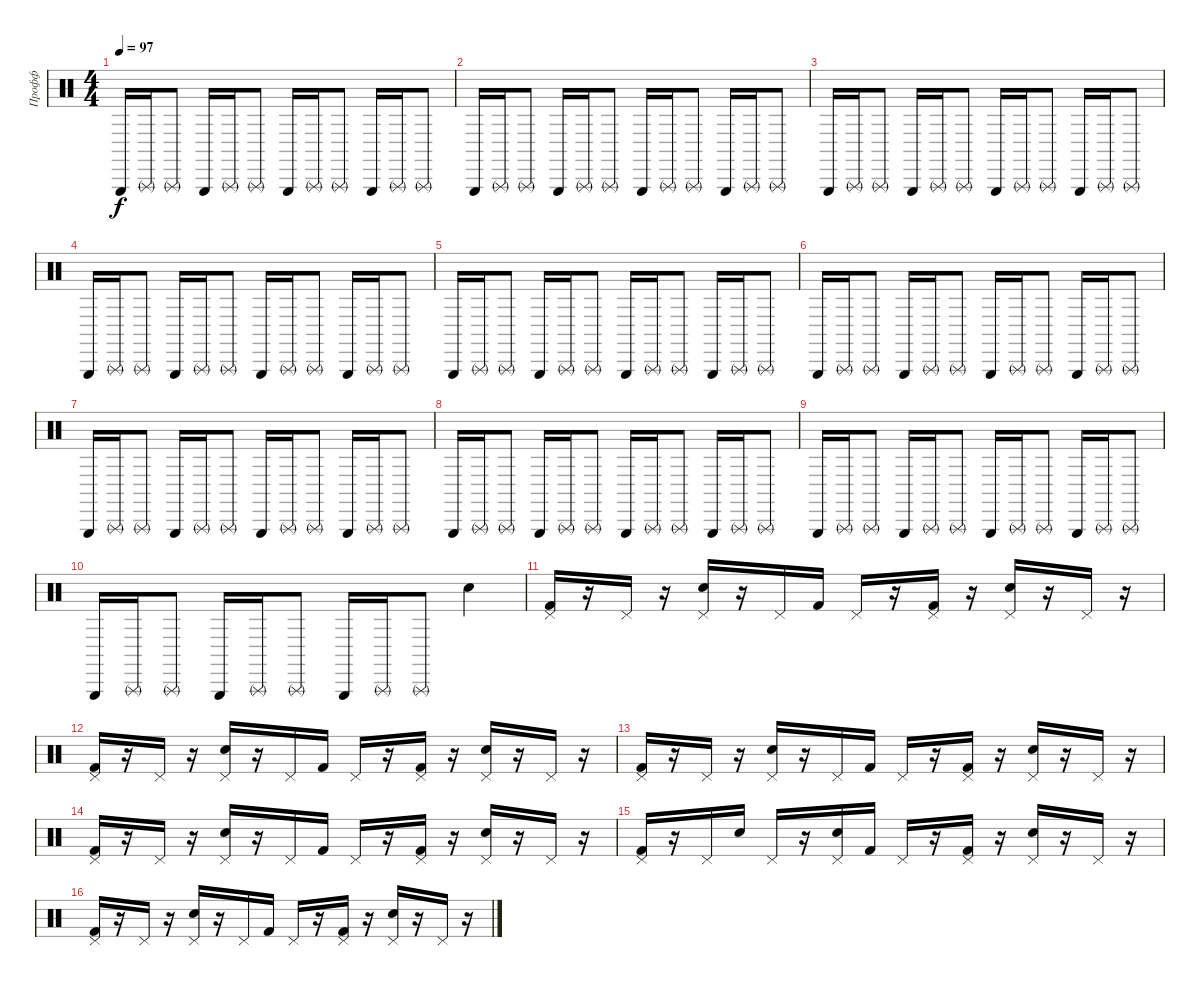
\track ("Профф" "Профф") {instrument percussion}
\staff {score}
\articulation defaults
\ts (4 4)
\tempo 97
\clef neutral
\ks c "Triangle (hit)".16{dy f} "Triangle (rnute)".16 "Triangle (rnute)".8 "Triangle (hit)".16 "Triangle (rnute)".16 "Triangle (rnute)".8 "Triangle (hit)".16 "Triangle (rnute)".16 "Triangle (rnute)".8 "Triangle (hit)".16 "Triangle (rnute)".16 "Triangle (rnute)".8
|
"Triangle (hit)".16 "Triangle (rnute)".16 "Triangle (rnute)".8 "Triangle (hit)".16 "Triangle (rnute)".16 "Triangle (rnute)".8 "Triangle (hit)".16 "Triangle (rnute)".16 "Triangle (rnute)".8 "Triangle (hit)".16 "Triangle (rnute)".16 "Triangle (rnute)".8 |
"Triangle (hit)".16 "Triangle (rnute)".16 "Triangle (rnute)".8 "Triangle (hit)".16 "Triangle (rnute)".16 "Triangle (rnute)".8 "Triangle (hit)".16 "Triangle (rnute)".16 "Triangle (rnute)".8 "Triangle (hit)".16 "Triangle (rnute)".16 "Triangle (rnute)".8 |
"Triangle (hit)".16 "Triangle (rnute)".16 "Triangle (rnute)".8 "Triangle (hit)".16 "Triangle (rnute)".16 "Triangle (rnute)".8 "Triangle (hit)".16 "Triangle (rnute)".16 "Triangle (rnute)".8 "Triangle (hit)".16 "Triangle (rnute)".16 "Triangle (rnute)".8 |
"Triangle (hit)".16 "Triangle (rnute)".16 "Triangle (rnute)".8 "Triangle (hit)".16 "Triangle (rnute)".16 "Triangle (rnute)".8 "Triangle (hit)".16 "Triangle (rnute)".16 "Triangle (rnute)".8 "Triangle (hit)".16 "Triangle (rnute)".16 "Triangle (rnute)".8 |
"Triangle (hit)".16 "Triangle (rnute)".16 "Triangle (rnute)".8 "Triangle (hit)".16 "Triangle (rnute)".16 "Triangle (rnute)".8 "Triangle (hit)".16 "Triangle (rnute)".16 "Triangle (rnute)".8 "Triangle (hit)".16 "Triangle (rnute)".16 "Triangle (rnute)".8 |
"Triangle (hit)".16 "Triangle (rnute)".16 "Triangle (rnute)".8 "Triangle (hit)".16 "Triangle (rnute)".16 "Triangle (rnute)".8 "Triangle (hit)".16 "Triangle (rnute)".16 "Triangle (rnute)".8 "Triangle (hit)".16 "Triangle (rnute)".16 "Triangle (rnute)".8 |
"Triangle (hit)".16 "Triangle (rnute)".16 "Triangle (rnute)".8 "Triangle (hit)".16 "Triangle (rnute)".16 "Triangle (rnute)".8 "Triangle (hit)".16 "Triangle (rnute)".16 "Triangle (rnute)".8 "Triangle (hit)".16 "Triangle (rnute)".16 "Triangle (rnute)".8 |
"Triangle (hit)".16 "Triangle (rnute)".16 "Triangle (rnute)".8 "Triangle (hit)".16 "Triangle (rnute)".16 "Triangle (rnute)".8 "Triangle (hit)".16 "Triangle (rnute)".16 "Triangle (rnute)".8 "Triangle (hit)".16 "Triangle (rnute)".16 "Triangle (rnute)".8 |
"Triangle (hit)".16 "Triangle (rnute)".16 "Triangle (rnute)".8 "Triangle (hit)".16 "Triangle (rnute)".16 "Triangle (rnute)".8 "Triangle (hit)".16 "Triangle (rnute)".16 "Triangle (rnute)".8 "Electric Snare (hit)".4 |
("Pedal Hi-Hat (hit)" "Kick (hit) 2").16 r.16 "Pedal Hi-Hat (hit)".16 r.16 ("Pedal Hi-Hat (hit)" "Electric Snare (hit)").16 r.16 "Pedal Hi-Hat (hit)".16 "Kick (hit) 2".16 "Pedal Hi-Hat (hit)".16 r.16 ("Pedal Hi-Hat (hit)" "Kick (hit) 2").16 r.16 ("Pedal Hi-Hat (hit)" "Electric Snare (hit)").16 r.16 "Pedal Hi-Hat (hit)".16 r.16 |
("Pedal Hi-Hat (hit)" "Kick (hit) 2").16 r.16 "Pedal Hi-Hat (hit)".16 r.16 ("Pedal Hi-Hat (hit)" "Electric Snare (hit)").16 r.16 "Pedal Hi-Hat (hit)".16 "Kick (hit) 2".16 "Pedal Hi-Hat (hit)".16 r.16 ("Pedal Hi-Hat (hit)" "Kick (hit) 2").16 r.16 ("Pedal Hi-Hat (hit)" "Electric Snare (hit)").16 r.16 "Pedal Hi-Hat (hit)".16 r.16 |
("Pedal Hi-Hat (hit)" "Kick (hit) 2").16 r.16 "Pedal Hi-Hat (hit)".16 r.16 ("Pedal Hi-Hat (hit)" "Electric Snare (hit)").16 r.16 "Pedal Hi-Hat (hit)".16 "Kick (hit) 2".16 "Pedal Hi-Hat (hit)".16 r.16 ("Pedal Hi-Hat (hit)" "Kick (hit) 2").16 r.16 ("Pedal Hi-Hat (hit)" "Electric Snare (hit)").16 r.16 "Pedal Hi-Hat (hit)".16 r.16 |
("Pedal Hi-Hat (hit)" "Kick (hit) 2").16 r.16 "Pedal Hi-Hat (hit)".16 r.16 ("Pedal Hi-Hat (hit)" "Electric Snare (hit)").16 r.16 "Pedal Hi-Hat (hit)".16 "Kick (hit) 2".16 "Pedal Hi-Hat (hit)".16 r.16 ("Pedal Hi-Hat (hit)" "Kick (hit) 2").16 r.16 ("Pedal Hi-Hat (hit)" "Electric Snare (hit)").16 r.16 "Pedal Hi-Hat (hit)".16 r.16 |
("Pedal Hi-Hat (hit)" "Kick (hit) 2").16 r.16 "Pedal Hi-Hat (hit)".16 "Electric Snare (hit)".16 "Pedal Hi-Hat (hit)".16 r.16 ("Pedal Hi-Hat (hit)" "Electric Snare (hit)").16 "Kick (hit) 2".16 "Pedal Hi-Hat (hit)".16 r.16 ("Pedal Hi-Hat (hit)" "Kick (hit) 2").16 r.16 ("Pedal Hi-Hat (hit)" "Electric Snare (hit)").16 r.16 "Pedal Hi-Hat (hit)".16 r.16 |
("Pedal Hi-Hat (hit)" "Kick (hit) 2").16 r.16 "Pedal Hi-Hat (hit)".16 r.16 ("Pedal Hi-Hat (hit)" "Electric Snare (hit)").16 r.16 "Pedal Hi-Hat (hit)".16 "Kick (hit) 2".16 "Pedal Hi-Hat (hit)".16 r.16 ("Pedal Hi-Hat (hit)" "Kick (hit) 2").16 r.16 ("Pedal Hi-Hat (hit)" "Electric Snare (hit)").16 r.16 "Pedal Hi-Hat (hit)".16 r.16
